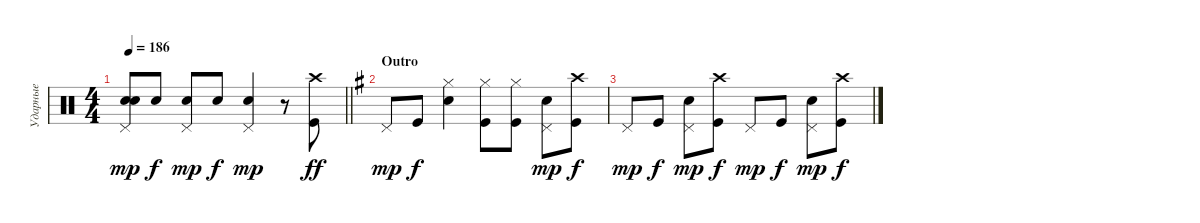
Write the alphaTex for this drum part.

\track ("Ударные" "Ударные") {instrument percussion}
\staff {score}
\articulation defaults
\ts (4 4)
\tempo 186
\clef neutral
\barLineRight lightlight
\ks aminor
("Snare (hit) 2" "Snare (hit) 2" "Pedal Hi-Hat (hit)").8{bd 240 dy mp} "Snare (hit) 2".8{dy f} ("Snare (hit) 2" "Pedal Hi-Hat (hit)").8{dy mp} "Snare (hit) 2".8{dy f} ("Snare (hit) 2" "Pedal Hi-Hat (hit)").4{dy mp} r.8 ("Kick (hit)" "Crash high (hit)").8{dy ff} |
\section ("" "Outro")
\ks eminor "Pedal Hi-Hat (hit)".8{dy mp} "Kick (hit)".8{dy f}
("Snare (hit) 2" "Hi-Hat (closed)").4 ("Kick (hit)" "Hi-Hat (closed)").8 ("Kick (hit)" "Hi-Hat (closed)").8 ("Snare (hit) 2" "Pedal Hi-Hat (hit)").8{dy mp} ("Kick (hit)" "Crash high (hit)").8{dy f} |
"Pedal Hi-Hat (hit)".8{dy mp} "Kick (hit)".8{dy f} ("Snare (hit) 2" "Pedal Hi-Hat (hit)").8{dy mp} ("Kick (hit)" "Crash high (hit)").8{dy f} "Pedal Hi-Hat (hit)".8{dy mp} "Kick (hit)".8{dy f} ("Snare (hit) 2" "Pedal Hi-Hat (hit)").8{dy mp} ("Kick (hit)" "Crash high (hit)").8{dy f}
